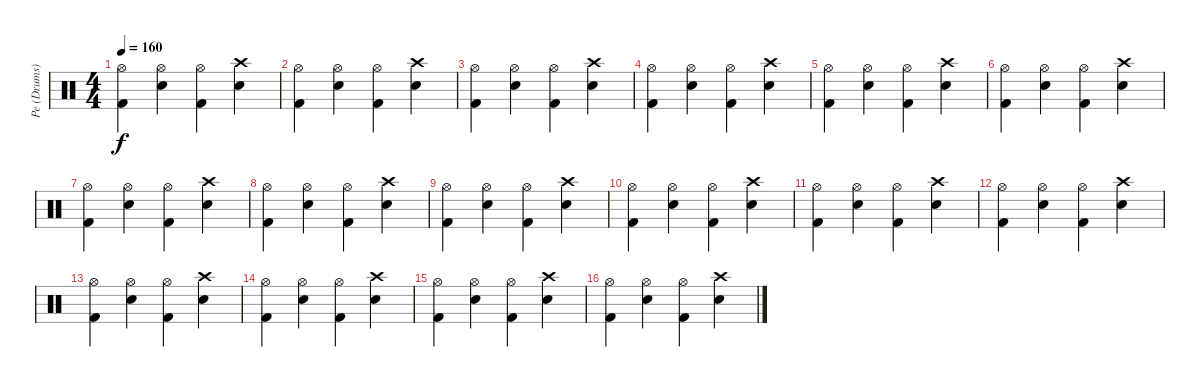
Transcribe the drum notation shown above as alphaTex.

\track ("Pe (Drums)" "Pe (Drums)") {instrument percussion}
\staff {score}
\articulation defaults
\ts (4 4)
\tempo 160
\clef neutral
\ks c
("Hi-Hat (open)" "Kick (hit) 2").4{dy f} ("Hi-Hat (open)" "Snare (hit) 2").4 ("Hi-Hat (open)" "Kick (hit) 2").4 ("Crash high (hit)" "Snare (hit) 2").4 |
("Hi-Hat (open)" "Kick (hit) 2").4 ("Hi-Hat (open)" "Snare (hit) 2").4 ("Hi-Hat (open)" "Kick (hit) 2").4 ("Crash high (hit)" "Snare (hit) 2").4 |
("Hi-Hat (open)" "Kick (hit) 2").4 ("Hi-Hat (open)" "Snare (hit) 2").4 ("Hi-Hat (open)" "Kick (hit) 2").4 ("Crash high (hit)" "Snare (hit) 2").4 |
("Hi-Hat (open)" "Kick (hit) 2").4 ("Hi-Hat (open)" "Snare (hit) 2").4 ("Hi-Hat (open)" "Kick (hit) 2").4 ("Crash high (hit)" "Snare (hit) 2").4 |
("Hi-Hat (open)" "Kick (hit) 2").4 ("Hi-Hat (open)" "Snare (hit) 2").4 ("Hi-Hat (open)" "Kick (hit) 2").4 ("Crash high (hit)" "Snare (hit) 2").4 |
("Hi-Hat (open)" "Kick (hit) 2").4 ("Hi-Hat (open)" "Snare (hit) 2").4 ("Hi-Hat (open)" "Kick (hit) 2").4 ("Crash high (hit)" "Snare (hit) 2").4 |
("Hi-Hat (open)" "Kick (hit) 2").4 ("Hi-Hat (open)" "Snare (hit) 2").4 ("Hi-Hat (open)" "Kick (hit) 2").4 ("Crash high (hit)" "Snare (hit) 2").4 |
("Hi-Hat (open)" "Kick (hit) 2").4 ("Hi-Hat (open)" "Snare (hit) 2").4 ("Hi-Hat (open)" "Kick (hit) 2").4 ("Crash high (hit)" "Snare (hit) 2").4 |
("Hi-Hat (open)" "Kick (hit) 2").4 ("Hi-Hat (open)" "Snare (hit) 2").4 ("Hi-Hat (open)" "Kick (hit) 2").4 ("Crash high (hit)" "Snare (hit) 2").4 |
("Hi-Hat (open)" "Kick (hit) 2").4 ("Hi-Hat (open)" "Snare (hit) 2").4 ("Hi-Hat (open)" "Kick (hit) 2").4 ("Crash high (hit)" "Snare (hit) 2").4 |
("Hi-Hat (open)" "Kick (hit) 2").4 ("Hi-Hat (open)" "Snare (hit) 2").4 ("Hi-Hat (open)" "Kick (hit) 2").4 ("Crash high (hit)" "Snare (hit) 2").4 |
("Hi-Hat (open)" "Kick (hit) 2").4 ("Hi-Hat (open)" "Snare (hit) 2").4 ("Hi-Hat (open)" "Kick (hit) 2").4 ("Crash high (hit)" "Snare (hit) 2").4 |
("Hi-Hat (open)" "Kick (hit) 2").4 ("Hi-Hat (open)" "Snare (hit) 2").4 ("Hi-Hat (open)" "Kick (hit) 2").4 ("Crash high (hit)" "Snare (hit) 2").4 |
("Hi-Hat (open)" "Kick (hit) 2").4 ("Hi-Hat (open)" "Snare (hit) 2").4 ("Hi-Hat (open)" "Kick (hit) 2").4 ("Crash high (hit)" "Snare (hit) 2").4 |
("Hi-Hat (open)" "Kick (hit) 2").4 ("Hi-Hat (open)" "Snare (hit) 2").4 ("Hi-Hat (open)" "Kick (hit) 2").4 ("Crash high (hit)" "Snare (hit) 2").4 |
("Hi-Hat (open)" "Kick (hit) 2").4 ("Hi-Hat (open)" "Snare (hit) 2").4 ("Hi-Hat (open)" "Kick (hit) 2").4 ("Crash high (hit)" "Snare (hit) 2").4
